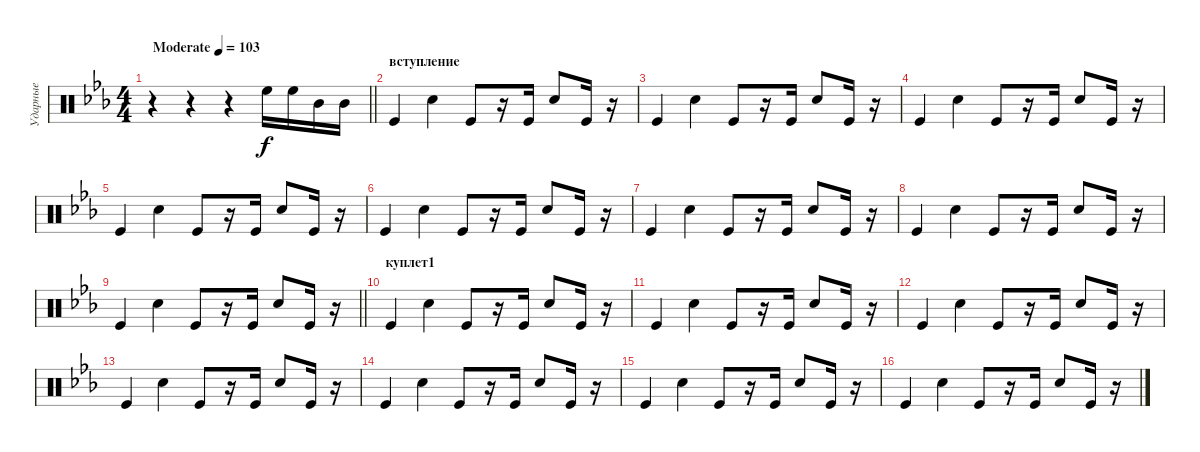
\track ("Ударные" "Ударные") {instrument percussion}
\staff {score}
\articulation defaults
\ts (4 4)
\tempo (103 "Moderate")
\clef neutral
\barLineRight lightlight
\ks cminor
r.4{dy f} r.4 r.4 "High Floor Tom (hit)".16 "High Floor Tom (hit)".16 "Mid Tom (hit)".16 "Mid Tom (hit)".16 |
\section ("" "вступление")
"Kick (hit)".4 "Electric Snare (hit)".4 "Kick (hit)".8 r.16 "Kick (hit)".16 "Electric Snare (hit)".8 "Kick (hit)".16 r.16 |
"Kick (hit)".4 "Electric Snare (hit)".4 "Kick (hit)".8 r.16 "Kick (hit)".16 "Electric Snare (hit)".8 "Kick (hit)".16 r.16 |
"Kick (hit)".4 "Electric Snare (hit)".4 "Kick (hit)".8 r.16 "Kick (hit)".16 "Electric Snare (hit)".8 "Kick (hit)".16 r.16 |
"Kick (hit)".4 "Electric Snare (hit)".4 "Kick (hit)".8 r.16 "Kick (hit)".16 "Electric Snare (hit)".8 "Kick (hit)".16 r.16 |
"Kick (hit)".4 "Electric Snare (hit)".4 "Kick (hit)".8 r.16 "Kick (hit)".16 "Electric Snare (hit)".8 "Kick (hit)".16 r.16 |
"Kick (hit)".4 "Electric Snare (hit)".4 "Kick (hit)".8 r.16 "Kick (hit)".16 "Electric Snare (hit)".8 "Kick (hit)".16 r.16 |
"Kick (hit)".4 "Electric Snare (hit)".4 "Kick (hit)".8 r.16 "Kick (hit)".16 "Electric Snare (hit)".8 "Kick (hit)".16 r.16 |
\barLineRight lightlight "Kick (hit)".4 "Electric Snare (hit)".4 "Kick (hit)".8
r.16 "Kick (hit)".16 "Electric Snare (hit)".8 "Kick (hit)".16 r.16 |
\section ("" "куплет1")
"Kick (hit)".4 "Electric Snare (hit)".4 "Kick (hit)".8 r.16 "Kick (hit)".16 "Electric Snare (hit)".8 "Kick (hit)".16 r.16 |
"Kick (hit)".4 "Electric Snare (hit)".4 "Kick (hit)".8 r.16 "Kick (hit)".16 "Electric Snare (hit)".8 "Kick (hit)".16 r.16 |
"Kick (hit)".4 "Electric Snare (hit)".4 "Kick (hit)".8 r.16 "Kick (hit)".16 "Electric Snare (hit)".8 "Kick (hit)".16 r.16 |
"Kick (hit)".4 "Electric Snare (hit)".4 "Kick (hit)".8 r.16 "Kick (hit)".16 "Electric Snare (hit)".8 "Kick (hit)".16 r.16 |
"Kick (hit)".4 "Electric Snare (hit)".4 "Kick (hit)".8 r.16 "Kick (hit)".16 "Electric Snare (hit)".8 "Kick (hit)".16 r.16 |
"Kick (hit)".4 "Electric Snare (hit)".4 "Kick (hit)".8 r.16 "Kick (hit)".16 "Electric Snare (hit)".8 "Kick (hit)".16 r.16 |
"Kick (hit)".4 "Electric Snare (hit)".4 "Kick (hit)".8 r.16 "Kick (hit)".16 "Electric Snare (hit)".8 "Kick (hit)".16 r.16
